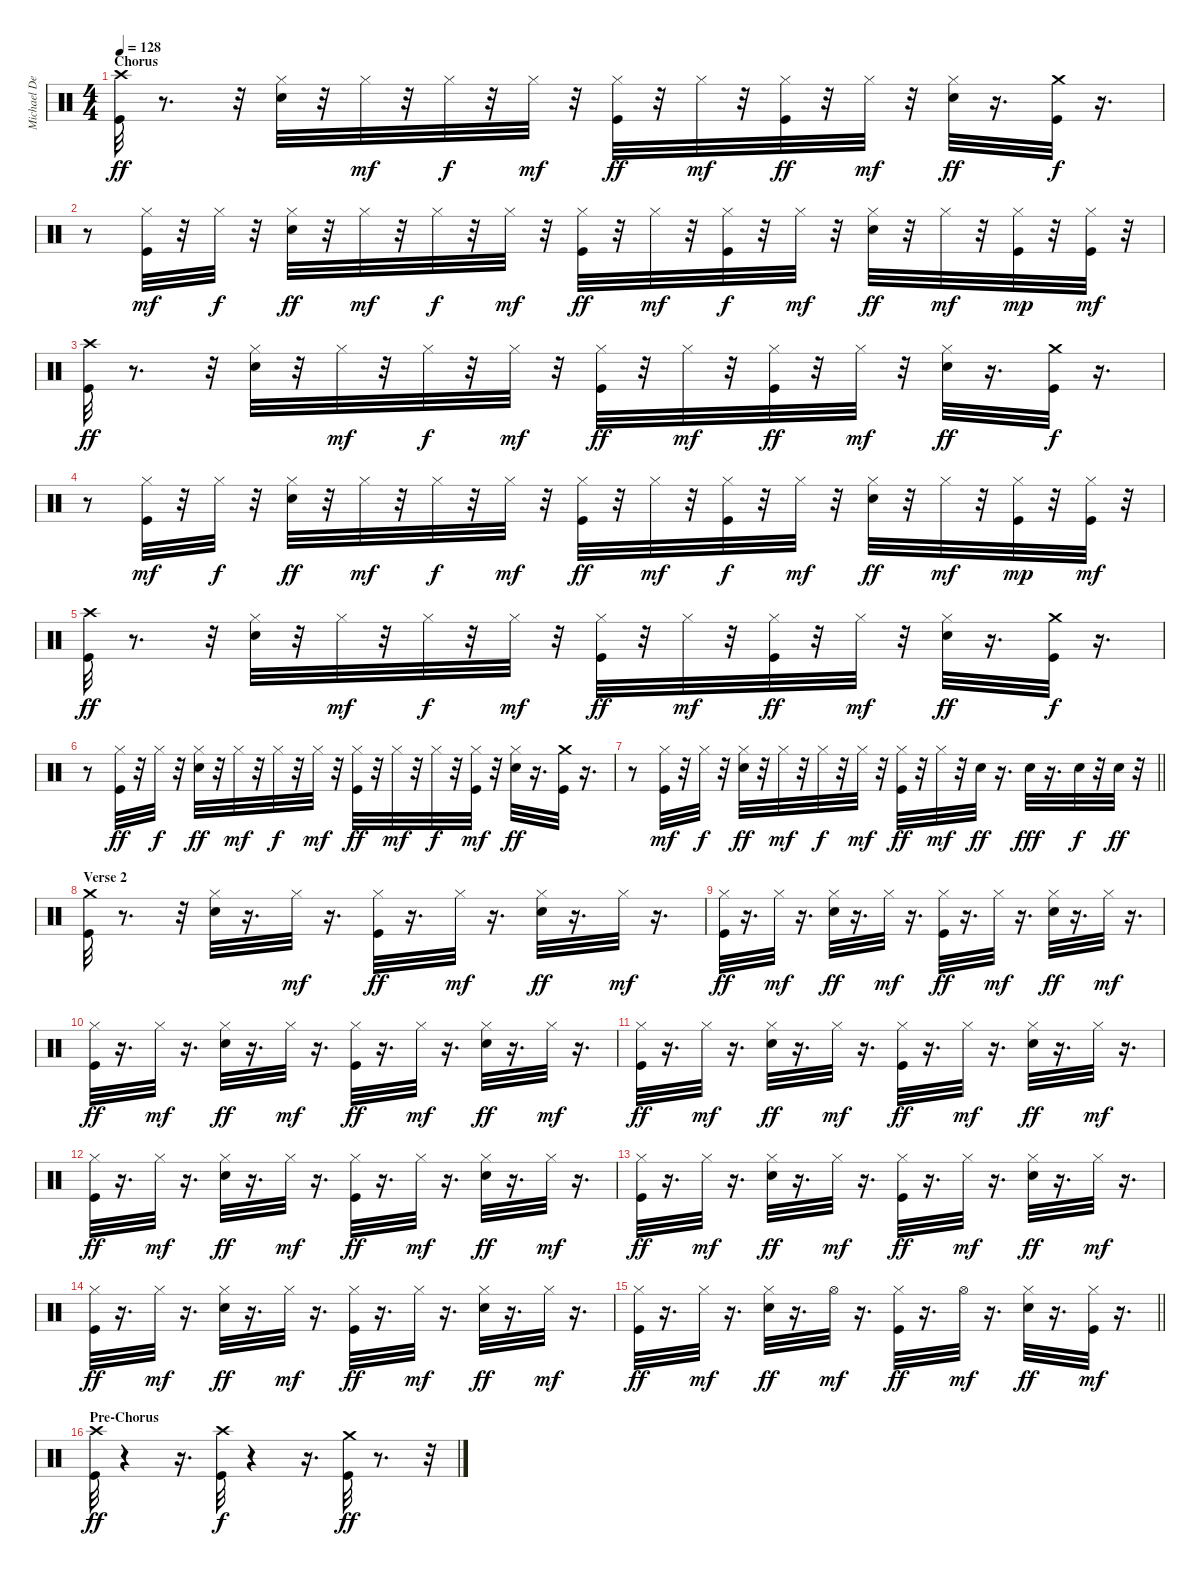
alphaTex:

\track ("Michael DeRosier" "Michael De") {instrument percussion}
\staff {score}
\articulation defaults
\ts (4 4)
\section ("" "Chorus")
\tempo 128
\clef neutral
\ks c
("Kick (hit)" "Crash high (hit)").32{dy ff} r.8{d} r.32 ("Snare (hit) 2" "Hi-Hat (closed)").32 r.32 "Hi-Hat (closed)".32{dy mf} r.32 "Hi-Hat (closed)".32{dy f} r.32 "Hi-Hat (closed)".32{dy mf} r.32 ("Hi-Hat (closed)" "Kick (hit)").32{dy ff} r.32 "Hi-Hat (closed)".32{dy mf} r.32 ("Kick (hit)" "Hi-Hat (closed)").32{dy ff} r.32 "Hi-Hat (closed)".32{dy mf} r.32 ("Snare (hit) 2" "Hi-Hat (closed)").32{dy ff} r.16{d} ("Kick (hit)" "Crash medium (hit)").32{dy f} r.16{d} |
r.8 ("Hi-Hat (closed)" "Kick (hit)").32{dy mf} r.32 "Hi-Hat (closed)".32{dy f} r.32 ("Snare (hit) 2" "Hi-Hat (closed)").32{dy ff} r.32 "Hi-Hat (closed)".32{dy mf} r.32 "Hi-Hat (closed)".32{dy f} r.32 "Hi-Hat (closed)".32{dy mf} r.32 ("Kick (hit)" "Hi-Hat (closed)").32{dy ff} r.32 "Hi-Hat (closed)".32{dy mf} r.32 ("Kick (hit)" "Hi-Hat (closed)").32{dy f} r.32 "Hi-Hat (closed)".32{dy mf} r.32 ("Snare (hit) 2" "Hi-Hat (closed)").32{dy ff} r.32 "Hi-Hat (closed)".32{dy mf} r.32 ("Kick (hit)" "Hi-Hat (closed)").32{dy mp} r.32 ("Hi-Hat (closed)" "Kick (hit)").32{dy mf} r.32 |
("Kick (hit)" "Crash high (hit)").32{dy ff} r.8{d} r.32 ("Snare (hit) 2" "Hi-Hat (closed)").32 r.32 "Hi-Hat (closed)".32{dy mf} r.32 "Hi-Hat (closed)".32{dy f} r.32 "Hi-Hat (closed)".32{dy mf} r.32 ("Hi-Hat (closed)" "Kick (hit)").32{dy ff} r.32 "Hi-Hat (closed)".32{dy mf} r.32 ("Hi-Hat (closed)" "Kick (hit)").32{dy ff} r.32 "Hi-Hat (closed)".32{dy mf} r.32 ("Snare (hit) 2" "Hi-Hat (closed)").32{dy ff} r.16{d} ("Kick (hit)" "Crash medium (hit)").32{dy f} r.16{d} |
r.8 ("Hi-Hat (closed)" "Kick (hit)").32{dy mf} r.32 "Hi-Hat (closed)".32{dy f} r.32 ("Snare (hit) 2" "Hi-Hat (closed)").32{dy ff} r.32 "Hi-Hat (closed)".32{dy mf} r.32 "Hi-Hat (closed)".32{dy f} r.32 "Hi-Hat (closed)".32{dy mf} r.32 ("Hi-Hat (closed)" "Kick (hit)").32{dy ff} r.32 "Hi-Hat (closed)".32{dy mf} r.32 ("Hi-Hat (closed)" "Kick (hit)").32{dy f} r.32 "Hi-Hat (closed)".32{dy mf} r.32 ("Snare (hit) 2" "Hi-Hat (closed)").32{dy ff} r.32 "Hi-Hat (closed)".32{dy mf} r.32 ("Kick (hit)" "Hi-Hat (closed)").32{dy mp} r.32 ("Hi-Hat (closed)" "Kick (hit)").32{dy mf} r.32 |
("Kick (hit)" "Crash high (hit)").32{dy ff} r.8{d} r.32 ("Snare (hit) 2" "Hi-Hat (closed)").32 r.32 "Hi-Hat (closed)".32{dy mf} r.32 "Hi-Hat (closed)".32{dy f} r.32 "Hi-Hat (closed)".32{dy mf} r.32 ("Kick (hit)" "Hi-Hat (closed)").32{dy ff} r.32 "Hi-Hat (closed)".32{dy mf} r.32 ("Hi-Hat (closed)" "Kick (hit)").32{dy ff} r.32 "Hi-Hat (closed)".32{dy mf} r.32 ("Snare (hit) 2" "Hi-Hat (closed)").32{dy ff} r.16{d} ("Kick (hit)" "Crash medium (hit)").32{dy f} r.16{d} |
r.8 ("Hi-Hat (closed)" "Kick (hit)").32{dy ff} r.32 "Hi-Hat (closed)".32{dy f} r.32 ("Snare (hit) 2" "Hi-Hat (closed)").32{dy ff} r.32 "Hi-Hat (closed)".32{dy mf} r.32 "Hi-Hat (closed)".32{dy f} r.32 "Hi-Hat (closed)".32{dy mf} r.32 ("Hi-Hat (closed)" "Kick (hit)").32{dy ff} r.32 "Hi-Hat (closed)".32{dy mf} r.32 "Hi-Hat (closed)".32{dy f} r.32 ("Hi-Hat (closed)" "Kick (hit)").32{dy mf} r.32 ("Snare (hit) 2" "Hi-Hat (closed)").32{dy ff} r.16{d} ("Kick (hit)" "Crash medium (hit)").32 r.16{d} |
\barLineRight lightlight
r.8 ("Hi-Hat (closed)" "Kick (hit)").32{dy mf} r.32 "Hi-Hat (closed)".32{dy f} r.32 ("Snare (hit) 2" "Hi-Hat (closed)").32{dy ff} r.32 "Hi-Hat (closed)".32{dy mf} r.32 "Hi-Hat (closed)".32{dy f} r.32 "Hi-Hat (closed)".32{dy mf} r.32 ("Hi-Hat (closed)" "Kick (hit)").32{dy ff} r.32 "Hi-Hat (closed)".32{dy mf} r.32 "Snare (hit) 2".32{dy ff} r.16{d} "Snare (hit) 2".32{dy fff} r.16{d} "Snare (hit) 2".32{dy f} r.32 "Snare (hit) 2".32{dy ff} r.32 |
\section ("" "Verse 2")
("Kick (hit)" "Crash medium (hit)").32 r.8{d} r.32 ("Snare (hit) 2" "Hi-Hat (closed)").32 r.16{d} "Hi-Hat (closed)".32{dy mf} r.16{d} ("Kick (hit)" "Hi-Hat (closed)").32{dy ff} r.16{d} "Hi-Hat (closed)".32{dy mf} r.16{d} ("Snare (hit) 2" "Hi-Hat (closed)").32{dy ff} r.16{d} "Hi-Hat (closed)".32{dy mf} r.16{d} |
("Hi-Hat (closed)" "Kick (hit)").32{dy ff} r.16{d} "Hi-Hat (closed)".32{dy mf} r.16{d} ("Snare (hit) 2" "Hi-Hat (closed)").32{dy ff} r.16{d} "Hi-Hat (closed)".32{dy mf} r.16{d} ("Hi-Hat (closed)" "Kick (hit)").32{dy ff} r.16{d} "Hi-Hat (closed)".32{dy mf} r.16{d} ("Snare (hit) 2" "Hi-Hat (closed)").32{dy ff} r.16{d} "Hi-Hat (closed)".32{dy mf} r.16{d} |
("Hi-Hat (closed)" "Kick (hit)").32{dy ff} r.16{d} "Hi-Hat (closed)".32{dy mf} r.16{d} ("Snare (hit) 2" "Hi-Hat (closed)").32{dy ff} r.16{d} "Hi-Hat (closed)".32{dy mf} r.16{d} ("Hi-Hat (closed)" "Kick (hit)").32{dy ff} r.16{d} "Hi-Hat (closed)".32{dy mf} r.16{d} ("Snare (hit) 2" "Hi-Hat (closed)").32{dy ff} r.16{d} "Hi-Hat (closed)".32{dy mf} r.16{d} |
("Hi-Hat (closed)" "Kick (hit)").32{dy ff} r.16{d} "Hi-Hat (closed)".32{dy mf} r.16{d} ("Snare (hit) 2" "Hi-Hat (closed)").32{dy ff} r.16{d} "Hi-Hat (closed)".32{dy mf} r.16{d} ("Kick (hit)" "Hi-Hat (closed)").32{dy ff} r.16{d} "Hi-Hat (closed)".32{dy mf} r.16{d} ("Snare (hit) 2" "Hi-Hat (closed)").32{dy ff} r.16{d} "Hi-Hat (closed)".32{dy mf} r.16{d} |
("Hi-Hat (closed)" "Kick (hit)").32{dy ff} r.16{d} "Hi-Hat (closed)".32{dy mf} r.16{d} ("Snare (hit) 2" "Hi-Hat (closed)").32{dy ff} r.16{d} "Hi-Hat (closed)".32{dy mf} r.16{d} ("Hi-Hat (closed)" "Kick (hit)").32{dy ff} r.16{d} "Hi-Hat (closed)".32{dy mf} r.16{d} ("Snare (hit) 2" "Hi-Hat (closed)").32{dy ff} r.16{d} "Hi-Hat (closed)".32{dy mf} r.16{d} |
("Hi-Hat (closed)" "Kick (hit)").32{dy ff} r.16{d} "Hi-Hat (closed)".32{dy mf} r.16{d} ("Snare (hit) 2" "Hi-Hat (closed)").32{dy ff} r.16{d} "Hi-Hat (closed)".32{dy mf} r.16{d} ("Hi-Hat (closed)" "Kick (hit)").32{dy ff} r.16{d} "Hi-Hat (closed)".32{dy mf} r.16{d} ("Snare (hit) 2" "Hi-Hat (closed)").32{dy ff} r.16{d} "Hi-Hat (closed)".32{dy mf} r.16{d} |
("Kick (hit)" "Hi-Hat (closed)").32{dy ff} r.16{d} "Hi-Hat (closed)".32{dy mf} r.16{d} ("Snare (hit) 2" "Hi-Hat (closed)").32{dy ff} r.16{d} "Hi-Hat (closed)".32{dy mf} r.16{d} ("Hi-Hat (closed)" "Kick (hit)").32{dy ff} r.16{d} "Hi-Hat (closed)".32{dy mf} r.16{d} ("Snare (hit) 2" "Hi-Hat (closed)").32{dy ff} r.16{d} "Hi-Hat (closed)".32{dy mf} r.16{d} |
\barLineRight lightlight
("Hi-Hat (closed)" "Kick (hit)").32{dy ff} r.16{d} "Hi-Hat (closed)".32{dy mf} r.16{d} ("Snare (hit) 2" "Hi-Hat (closed)").32{dy ff} r.16{d} "Hi-Hat (open)".32{dy mf} r.16{d} ("Hi-Hat (closed)" "Kick (hit)").32{dy ff} r.16{d} "Hi-Hat (open)".32{dy mf} r.16{d} ("Snare (hit) 2" "Hi-Hat (closed)").32{dy ff} r.16{d} ("Kick (hit)" "Hi-Hat (closed)").32{dy mf} r.16{d} |
\section ("" "Pre-Chorus")
("Kick (hit)" "Crash high (hit)").32{dy ff} r.4 r.16{d} ("Kick (hit)" "Crash high (hit)").32{dy f} r.4 r.16{d} ("Kick (hit)" "Crash medium (hit)").32{dy ff} r.8{d} r.32
